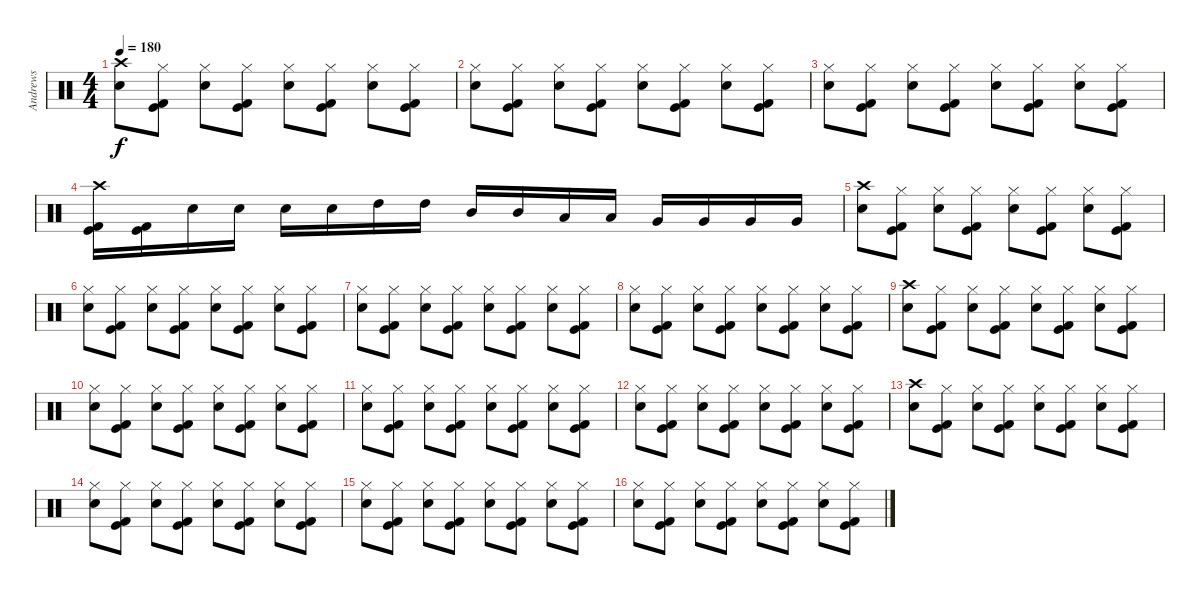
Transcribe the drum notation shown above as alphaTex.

\track ("Andrews" "Andrews") {instrument percussion}
\staff {score}
\articulation defaults
\ts (4 4)
\tempo 180
\clef neutral
\ks c
("Crash high (hit)" "Electric Snare (hit)").8{dy f} ("Hi-Hat (closed)" "Kick (hit) 2" "Kick (hit)").8 ("Hi-Hat (closed)" "Electric Snare (hit)").8 ("Hi-Hat (closed)" "Kick (hit) 2" "Kick (hit)").8 ("Hi-Hat (closed)" "Electric Snare (hit)").8 ("Hi-Hat (closed)" "Kick (hit) 2" "Kick (hit)").8 ("Hi-Hat (closed)" "Electric Snare (hit)").8 ("Hi-Hat (closed)" "Kick (hit) 2" "Kick (hit)").8 |
("Hi-Hat (closed)" "Electric Snare (hit)").8 ("Hi-Hat (closed)" "Kick (hit) 2" "Kick (hit)").8 ("Hi-Hat (closed)" "Electric Snare (hit)").8 ("Hi-Hat (closed)" "Kick (hit) 2" "Kick (hit)").8 ("Hi-Hat (closed)" "Electric Snare (hit)").8 ("Hi-Hat (closed)" "Kick (hit) 2" "Kick (hit)").8 ("Hi-Hat (closed)" "Electric Snare (hit)").8 ("Hi-Hat (closed)" "Kick (hit) 2" "Kick (hit)").8 |
("Hi-Hat (closed)" "Electric Snare (hit)").8 ("Hi-Hat (closed)" "Kick (hit) 2" "Kick (hit)").8 ("Hi-Hat (closed)" "Electric Snare (hit)").8 ("Hi-Hat (closed)" "Kick (hit) 2" "Kick (hit)").8 ("Hi-Hat (closed)" "Electric Snare (hit)").8 ("Hi-Hat (closed)" "Kick (hit) 2" "Kick (hit)").8 ("Hi-Hat (closed)" "Electric Snare (hit)").8 ("Hi-Hat (closed)" "Kick (hit) 2" "Kick (hit)").8 |
("Crash high (hit)" "Kick (hit) 2" "Kick (hit)").16 ("Kick (hit) 2" "Kick (hit)").16 "Electric Snare (hit)".16 "Electric Snare (hit)".16 "Electric Snare (hit)".16 "Electric Snare (hit)".16 "High Tom (hit)".16 "High Tom (hit)".16 "Mid Tom (hit)".16 "Mid Tom (hit)".16 "Low Tom (hit)".16 "Low Tom (hit)".16 "Very Low Tom (hit)".16 "Very Low Tom (hit)".16 "Very Low Tom (hit)".16 "Very Low Tom (hit)".16 |
("Crash high (hit)" "Electric Snare (hit)").8 ("Hi-Hat (closed)" "Kick (hit) 2" "Kick (hit)").8 ("Hi-Hat (closed)" "Electric Snare (hit)").8 ("Hi-Hat (closed)" "Kick (hit) 2" "Kick (hit)").8 ("Hi-Hat (closed)" "Electric Snare (hit)").8 ("Hi-Hat (closed)" "Kick (hit) 2" "Kick (hit)").8 ("Hi-Hat (closed)" "Electric Snare (hit)").8 ("Hi-Hat (closed)" "Kick (hit) 2" "Kick (hit)").8 |
("Hi-Hat (closed)" "Electric Snare (hit)").8 ("Hi-Hat (closed)" "Kick (hit) 2" "Kick (hit)").8 ("Hi-Hat (closed)" "Electric Snare (hit)").8 ("Hi-Hat (closed)" "Kick (hit) 2" "Kick (hit)").8 ("Hi-Hat (closed)" "Electric Snare (hit)").8 ("Hi-Hat (closed)" "Kick (hit) 2" "Kick (hit)").8 ("Hi-Hat (closed)" "Electric Snare (hit)").8 ("Hi-Hat (closed)" "Kick (hit) 2" "Kick (hit)").8 |
("Hi-Hat (closed)" "Electric Snare (hit)").8 ("Hi-Hat (closed)" "Kick (hit) 2" "Kick (hit)").8 ("Hi-Hat (closed)" "Electric Snare (hit)").8 ("Hi-Hat (closed)" "Kick (hit) 2" "Kick (hit)").8 ("Hi-Hat (closed)" "Electric Snare (hit)").8 ("Hi-Hat (closed)" "Kick (hit) 2" "Kick (hit)").8 ("Hi-Hat (closed)" "Electric Snare (hit)").8 ("Hi-Hat (closed)" "Kick (hit) 2" "Kick (hit)").8 |
("Hi-Hat (closed)" "Electric Snare (hit)").8 ("Hi-Hat (closed)" "Kick (hit) 2" "Kick (hit)").8 ("Hi-Hat (closed)" "Electric Snare (hit)").8 ("Hi-Hat (closed)" "Kick (hit) 2" "Kick (hit)").8 ("Hi-Hat (closed)" "Electric Snare (hit)").8 ("Hi-Hat (closed)" "Kick (hit) 2" "Kick (hit)").8 ("Hi-Hat (closed)" "Electric Snare (hit)").8 ("Hi-Hat (closed)" "Kick (hit) 2" "Kick (hit)").8 |
("Crash high (hit)" "Electric Snare (hit)").8 ("Hi-Hat (closed)" "Kick (hit) 2" "Kick (hit)").8 ("Hi-Hat (closed)" "Electric Snare (hit)").8 ("Hi-Hat (closed)" "Kick (hit) 2" "Kick (hit)").8 ("Hi-Hat (closed)" "Electric Snare (hit)").8 ("Hi-Hat (closed)" "Kick (hit) 2" "Kick (hit)").8 ("Hi-Hat (closed)" "Electric Snare (hit)").8 ("Hi-Hat (closed)" "Kick (hit) 2" "Kick (hit)").8 |
("Hi-Hat (closed)" "Electric Snare (hit)").8 ("Hi-Hat (closed)" "Kick (hit) 2" "Kick (hit)").8 ("Hi-Hat (closed)" "Electric Snare (hit)").8 ("Hi-Hat (closed)" "Kick (hit) 2" "Kick (hit)").8 ("Hi-Hat (closed)" "Electric Snare (hit)").8 ("Hi-Hat (closed)" "Kick (hit) 2" "Kick (hit)").8 ("Hi-Hat (closed)" "Electric Snare (hit)").8 ("Hi-Hat (closed)" "Kick (hit) 2" "Kick (hit)").8 |
("Hi-Hat (closed)" "Electric Snare (hit)").8 ("Hi-Hat (closed)" "Kick (hit) 2" "Kick (hit)").8 ("Hi-Hat (closed)" "Electric Snare (hit)").8 ("Hi-Hat (closed)" "Kick (hit) 2" "Kick (hit)").8 ("Hi-Hat (closed)" "Electric Snare (hit)").8 ("Hi-Hat (closed)" "Kick (hit) 2" "Kick (hit)").8 ("Hi-Hat (closed)" "Electric Snare (hit)").8 ("Hi-Hat (closed)" "Kick (hit) 2" "Kick (hit)").8 |
("Hi-Hat (closed)" "Electric Snare (hit)").8 ("Hi-Hat (closed)" "Kick (hit) 2" "Kick (hit)").8 ("Hi-Hat (closed)" "Electric Snare (hit)").8 ("Hi-Hat (closed)" "Kick (hit) 2" "Kick (hit)").8 ("Hi-Hat (closed)" "Electric Snare (hit)").8 ("Hi-Hat (closed)" "Kick (hit) 2" "Kick (hit)").8 ("Hi-Hat (closed)" "Electric Snare (hit)").8 ("Hi-Hat (closed)" "Kick (hit) 2" "Kick (hit)").8 |
("Crash high (hit)" "Electric Snare (hit)").8 ("Hi-Hat (closed)" "Kick (hit) 2" "Kick (hit)").8 ("Hi-Hat (closed)" "Electric Snare (hit)").8 ("Hi-Hat (closed)" "Kick (hit) 2" "Kick (hit)").8 ("Hi-Hat (closed)" "Electric Snare (hit)").8 ("Hi-Hat (closed)" "Kick (hit) 2" "Kick (hit)").8 ("Hi-Hat (closed)" "Electric Snare (hit)").8 ("Hi-Hat (closed)" "Kick (hit) 2" "Kick (hit)").8 |
("Hi-Hat (closed)" "Electric Snare (hit)").8 ("Hi-Hat (closed)" "Kick (hit) 2" "Kick (hit)").8 ("Hi-Hat (closed)" "Electric Snare (hit)").8 ("Hi-Hat (closed)" "Kick (hit) 2" "Kick (hit)").8 ("Hi-Hat (closed)" "Electric Snare (hit)").8 ("Hi-Hat (closed)" "Kick (hit) 2" "Kick (hit)").8 ("Hi-Hat (closed)" "Electric Snare (hit)").8 ("Hi-Hat (closed)" "Kick (hit) 2" "Kick (hit)").8 |
("Hi-Hat (closed)" "Electric Snare (hit)").8 ("Hi-Hat (closed)" "Kick (hit) 2" "Kick (hit)").8 ("Hi-Hat (closed)" "Electric Snare (hit)").8 ("Hi-Hat (closed)" "Kick (hit) 2" "Kick (hit)").8 ("Hi-Hat (closed)" "Electric Snare (hit)").8 ("Hi-Hat (closed)" "Kick (hit) 2" "Kick (hit)").8 ("Hi-Hat (closed)" "Electric Snare (hit)").8 ("Hi-Hat (closed)" "Kick (hit) 2" "Kick (hit)").8 |
("Hi-Hat (closed)" "Electric Snare (hit)").8 ("Hi-Hat (closed)" "Kick (hit) 2" "Kick (hit)").8 ("Hi-Hat (closed)" "Electric Snare (hit)").8 ("Hi-Hat (closed)" "Kick (hit) 2" "Kick (hit)").8 ("Hi-Hat (closed)" "Electric Snare (hit)").8 ("Hi-Hat (closed)" "Kick (hit) 2" "Kick (hit)").8 ("Hi-Hat (closed)" "Electric Snare (hit)").8 ("Hi-Hat (closed)" "Kick (hit) 2" "Kick (hit)").8
